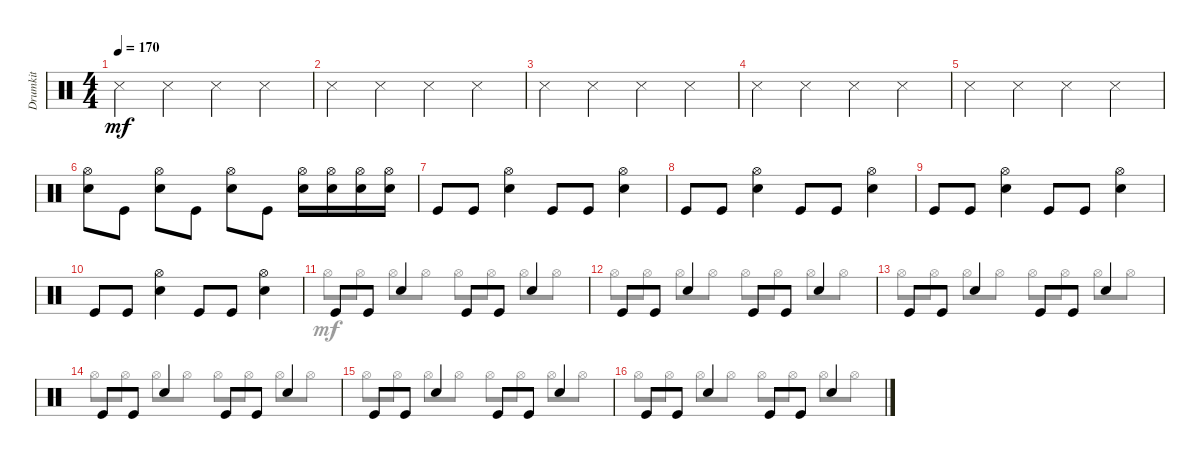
\track ("Drumkit" "Drumkit") {instrument percussion}
\staff {score}
\articulation defaults
\voice
\ts (4 4)
\tempo 170
\clef neutral
\ks c "Snare (side stick) 3".4{dy mf} "Snare (side stick) 3".4 "Snare (side stick) 3".4 "Snare (side stick) 3".4
|
"Snare (side stick) 3".4 "Snare (side stick) 3".4 "Snare (side stick) 3".4 "Snare (side stick) 3".4 |
\section ("" "")
"Snare (side stick) 3".4 "Snare (side stick) 3".4 "Snare (side stick) 3".4 "Snare (side stick) 3".4 |
"Snare (side stick) 3".4 "Snare (side stick) 3".4 "Snare (side stick) 3".4 "Snare (side stick) 3".4 |
"Snare (side stick) 3".4 "Snare (side stick) 3".4 "Snare (side stick) 3".4 "Snare (side stick) 3".4 |
("Snare (hit) 2" "Hi-Hat (open)").8 "Kick (hit)".8 ("Snare (hit) 2" "Hi-Hat (open)").8 "Kick (hit)".8 ("Snare (hit) 2" "Hi-Hat (open)").8 "Kick (hit)".8 ("Hi-Hat (open)" "Snare (hit) 2").16 ("Snare (hit) 2" "Hi-Hat (open)").16 ("Snare (hit) 2" "Hi-Hat (open)").16 ("Snare (hit) 2" "Hi-Hat (open)").16 |
\section ("" "")
"Kick (hit)".8 "Kick (hit)".8 ("Snare (hit) 2" "Hi-Hat (open)").4 "Kick (hit)".8 "Kick (hit)".8 ("Snare (hit) 2" "Hi-Hat (open)").4 |
"Kick (hit)".8 "Kick (hit)".8 ("Snare (hit) 2" "Hi-Hat (open)").4 "Kick (hit)".8 "Kick (hit)".8 ("Snare (hit) 2" "Hi-Hat (open)").4 |
"Kick (hit)".8 "Kick (hit)".8 ("Snare (hit) 2" "Hi-Hat (open)").4 "Kick (hit)".8 "Kick (hit)".8 ("Snare (hit) 2" "Hi-Hat (open)").4 |
"Kick (hit)".8 "Kick (hit)".8 ("Snare (hit) 2" "Hi-Hat (open)").4 "Kick (hit)".8 "Kick (hit)".8 ("Snare (hit) 2" "Hi-Hat (open)").4 |
\section ("" "")
"Kick (hit)".8 "Kick (hit)".8 "Snare (hit) 2".4 "Kick (hit)".8 "Kick (hit)".8 "Snare (hit) 2".4 |
"Kick (hit)".8 "Kick (hit)".8 "Snare (hit) 2".4 "Kick (hit)".8 "Kick (hit)".8 "Snare (hit) 2".4 |
"Kick (hit)".8 "Kick (hit)".8 "Snare (hit) 2".4 "Kick (hit)".8 "Kick (hit)".8 "Snare (hit) 2".4 |
"Kick (hit)".8 "Kick (hit)".8 "Snare (hit) 2".4 "Kick (hit)".8 "Kick (hit)".8 "Snare (hit) 2".4 |
"Kick (hit)".8 "Kick (hit)".8 "Snare (hit) 2".4 "Kick (hit)".8 "Kick (hit)".8 "Snare (hit) 2".4 |
"Kick (hit)".8 "Kick (hit)".8 "Snare (hit) 2".4 "Kick (hit)".8 "Kick (hit)".8 "Snare (hit) 2".4
\voice
\clef neutral
\ottava regular
\simile none
\ks c
|
|
|
|
|
|
|
|
|
|
"Hi-Hat (open)".8 "Hi-Hat (open)".8 "Hi-Hat (open)".8 "Hi-Hat (open)".8 "Hi-Hat (open)".8 "Hi-Hat (open)".8 "Hi-Hat (open)".8 "Hi-Hat (open)".8 |
"Hi-Hat (open)".8 "Hi-Hat (open)".8 "Hi-Hat (open)".8 "Hi-Hat (open)".8 "Hi-Hat (open)".8 "Hi-Hat (open)".8 "Hi-Hat (open)".8 "Hi-Hat (open)".8 |
"Hi-Hat (open)".8 "Hi-Hat (open)".8 "Hi-Hat (open)".8 "Hi-Hat (open)".8 "Hi-Hat (open)".8 "Hi-Hat (open)".8 "Hi-Hat (open)".8 "Hi-Hat (open)".8 |
"Hi-Hat (open)".8 "Hi-Hat (open)".8 "Hi-Hat (open)".8 "Hi-Hat (open)".8 "Hi-Hat (open)".8 "Hi-Hat (open)".8 "Hi-Hat (open)".8 "Hi-Hat (open)".8 |
"Hi-Hat (open)".8 "Hi-Hat (open)".8 "Hi-Hat (open)".8 "Hi-Hat (open)".8 "Hi-Hat (open)".8 "Hi-Hat (open)".8 "Hi-Hat (open)".8 "Hi-Hat (open)".8 |
"Hi-Hat (open)".8 "Hi-Hat (open)".8 "Hi-Hat (open)".8 "Hi-Hat (open)".8 "Hi-Hat (open)".8 "Hi-Hat (open)".8 "Hi-Hat (open)".8 "Hi-Hat (open)".8
